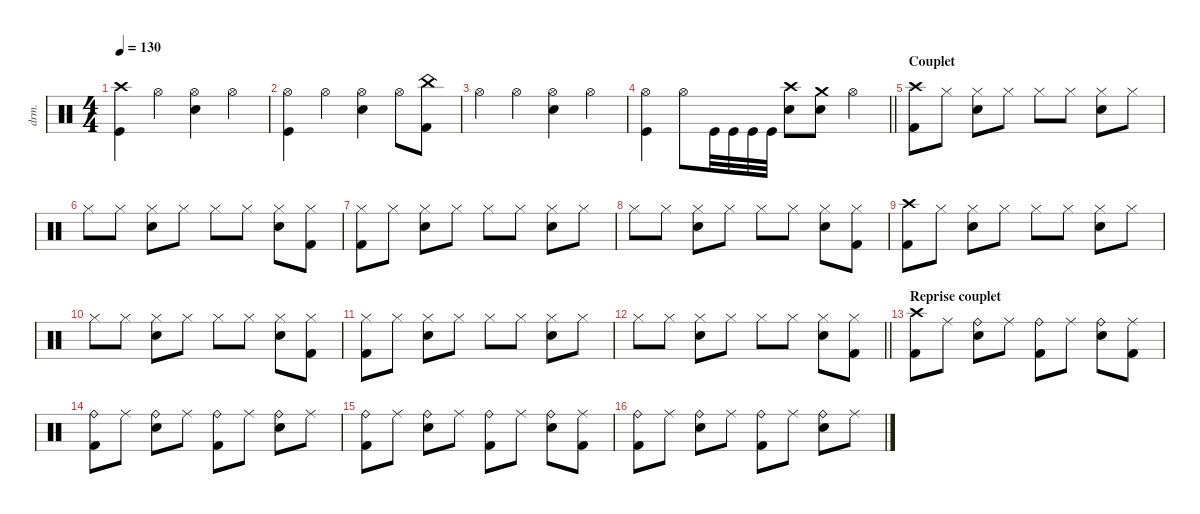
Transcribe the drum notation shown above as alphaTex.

\defaultSystemsLayout 4
\hideDynamics
\bracketExtendMode nobrackets
\track ("Manouche" "drm.") {instrument percussion}
\staff {score}
\articulation defaults
\ts (4 4)
\tempo 130
\clef neutral
\ks c
("Crash high (hit)" "Kick (hit)").4{dy f beam Down} "Hi-Hat (open)".4{beam Down} ("Hi-Hat (open)" "Snare (hit) 2").4{beam Down} "Hi-Hat (open)".4{beam Down} |
("Hi-Hat (open)" "Kick (hit)").4{beam Down} "Hi-Hat (open)".4{beam Down} ("Hi-Hat (open)" "Snare (hit) 2").4{beam Down} "Hi-Hat (open)".8{beam Down} ("China (hit)" "Kick (hit) 2").8{beam Down} |
"Hi-Hat (open)".4{beam Down} "Hi-Hat (open)".4{beam Down} ("Hi-Hat (open)" "Snare (hit) 2").4{beam Down} "Hi-Hat (open)".4{beam Down} |
\barLineRight lightlight
("Hi-Hat (open)" "Kick (hit)").4{beam Down} "Hi-Hat (open)".8{beam Down} "Kick (hit)".32{beam Down} "Kick (hit)".32{beam Down} "Kick (hit)".32{beam Down} "Kick (hit)".32{beam Down} ("Snare (hit) 2" "Crash high (hit)").8{beam Down} ("Crash medium (hit)" "Snare (hit) 2").8{beam Down} "Hi-Hat (open)".4{beam Down} |
\section ("" "Couplet")
("Crash high (hit)" "Kick (hit) 2").8{beam Down} "Hi-Hat (closed)".8{dy mp beam Down} ("Hi-Hat (closed)" "Snare (hit) 2").8{dy f beam Down} "Hi-Hat (closed)".8{dy mp beam Down} "Hi-Hat (closed)".8{dy f beam Down} "Hi-Hat (closed)".8{dy mp beam Down} ("Hi-Hat (closed)" "Snare (hit) 2").8{dy f beam Down} "Hi-Hat (closed)".8{dy mp beam Down} |
"Hi-Hat (closed)".8{dy f beam Down} "Hi-Hat (closed)".8{dy mp beam Down} ("Hi-Hat (closed)" "Snare (hit) 2").8{dy f beam Down} "Hi-Hat (closed)".8{dy mp beam Down} "Hi-Hat (closed)".8{dy f beam Down} "Hi-Hat (closed)".8{dy mp beam Down} ("Hi-Hat (closed)" "Snare (hit) 2").8{dy f beam Down} ("Hi-Hat (closed)" "Kick (hit) 2").8{dy mp beam Down} |
("Hi-Hat (closed)" "Kick (hit) 2").8{beam Down} "Hi-Hat (closed)".8{beam Down} ("Hi-Hat (closed)" "Snare (hit) 2").8{dy f beam Down} "Hi-Hat (closed)".8{dy mp beam Down} "Hi-Hat (closed)".8{dy f beam Down} "Hi-Hat (closed)".8{dy mp beam Down} ("Hi-Hat (closed)" "Snare (hit) 2").8{dy f beam Down} "Hi-Hat (closed)".8{dy mp beam Down} |
"Hi-Hat (closed)".8{dy f beam Down} "Hi-Hat (closed)".8{dy mp beam Down} ("Hi-Hat (closed)" "Snare (hit) 2").8{dy f beam Down} "Hi-Hat (closed)".8{dy mp beam Down} "Hi-Hat (closed)".8{dy f beam Down} "Hi-Hat (closed)".8{dy mp beam Down} ("Hi-Hat (closed)" "Snare (hit) 2").8{dy f beam Down} ("Hi-Hat (closed)" "Kick (hit) 2").8{dy mp beam Down} |
("Crash high (hit)" "Kick (hit) 2").8{dy f beam Down} "Hi-Hat (closed)".8{dy mp beam Down} ("Hi-Hat (closed)" "Snare (hit) 2").8{dy f beam Down} "Hi-Hat (closed)".8{dy mp beam Down} "Hi-Hat (closed)".8{dy f beam Down} "Hi-Hat (closed)".8{dy mp beam Down} ("Hi-Hat (closed)" "Snare (hit) 2").8{dy f beam Down} "Hi-Hat (closed)".8{dy mp beam Down} |
"Hi-Hat (closed)".8{dy f beam Down} "Hi-Hat (closed)".8{dy mp beam Down} ("Hi-Hat (closed)" "Snare (hit) 2").8{dy f beam Down} "Hi-Hat (closed)".8{dy mp beam Down} "Hi-Hat (closed)".8{dy f beam Down} "Hi-Hat (closed)".8{dy mp beam Down} ("Hi-Hat (closed)" "Snare (hit) 2").8{dy f beam Down} ("Hi-Hat (closed)" "Kick (hit) 2").8{dy mp beam Down} |
("Hi-Hat (closed)" "Kick (hit) 2").8{beam Down} "Hi-Hat (closed)".8{beam Down} ("Hi-Hat (closed)" "Snare (hit) 2").8{dy f beam Down} "Hi-Hat (closed)".8{dy mp beam Down} "Hi-Hat (closed)".8{dy f beam Down} "Hi-Hat (closed)".8{dy mp beam Down} ("Hi-Hat (closed)" "Snare (hit) 2").8{dy f beam Down} "Hi-Hat (closed)".8{dy mp beam Down} |
\barLineRight lightlight "Hi-Hat (closed)".8{dy f beam Down} "Hi-Hat (closed)".8{dy mp beam Down}
("Hi-Hat (closed)" "Snare (hit) 2").8{dy f beam Down} "Hi-Hat (closed)".8{dy mp beam Down} "Hi-Hat (closed)".8{dy f beam Down} "Hi-Hat (closed)".8{dy mp beam Down} ("Hi-Hat (closed)" "Snare (hit) 2").8{dy f beam Down} ("Hi-Hat (closed)" "Kick (hit) 2").8{dy mp beam Down} |
\section ("" "Reprise couplet")
("Crash high (hit)" "Kick (hit) 2").8{dy f beam Down} "Ride (middle)".8{dy mf beam Down} ("Ride (bell)" "Snare (hit) 2").8{dy f beam Down} "Ride (middle)".8{dy mf beam Down} ("Ride (bell)" "Kick (hit) 2").8{dy f beam Down} "Ride (middle)".8{dy mf beam Down} ("Ride (bell)" "Snare (hit) 2").8{dy f beam Down} ("Ride (middle)" "Kick (hit) 2").8{dy mf beam Down} |
("Ride (bell)" "Kick (hit) 2").8{dy f beam Down} "Ride (middle)".8{dy mf beam Down} ("Ride (bell)" "Snare (hit) 2").8{dy f beam Down} "Ride (middle)".8{dy mf beam Down} ("Ride (bell)" "Kick (hit) 2").8{dy f beam Down} "Ride (middle)".8{dy mf beam Down} ("Ride (bell)" "Snare (hit) 2").8{dy f beam Down} "Ride (middle)".8{dy mf beam Down} |
("Ride (bell)" "Kick (hit) 2").8{dy f beam Down} "Ride (middle)".8{dy mf beam Down} ("Ride (bell)" "Snare (hit) 2").8{dy f beam Down} "Ride (middle)".8{dy mf beam Down} ("Ride (bell)" "Kick (hit) 2").8{dy f beam Down} "Ride (middle)".8{dy mf beam Down} ("Ride (bell)" "Snare (hit) 2").8{dy f beam Down} ("Ride (middle)" "Kick (hit) 2").8{dy mf beam Down} |
("Ride (bell)" "Kick (hit) 2").8{dy f beam Down} "Ride (middle)".8{dy mf beam Down} ("Ride (bell)" "Snare (hit) 2").8{dy f beam Down} "Ride (middle)".8{dy mf beam Down} ("Ride (bell)" "Kick (hit) 2").8{dy f beam Down} "Ride (middle)".8{dy mf beam Down} ("Ride (bell)" "Snare (hit) 2").8{dy f beam Down} "Ride (middle)".8{dy mf beam Down}
